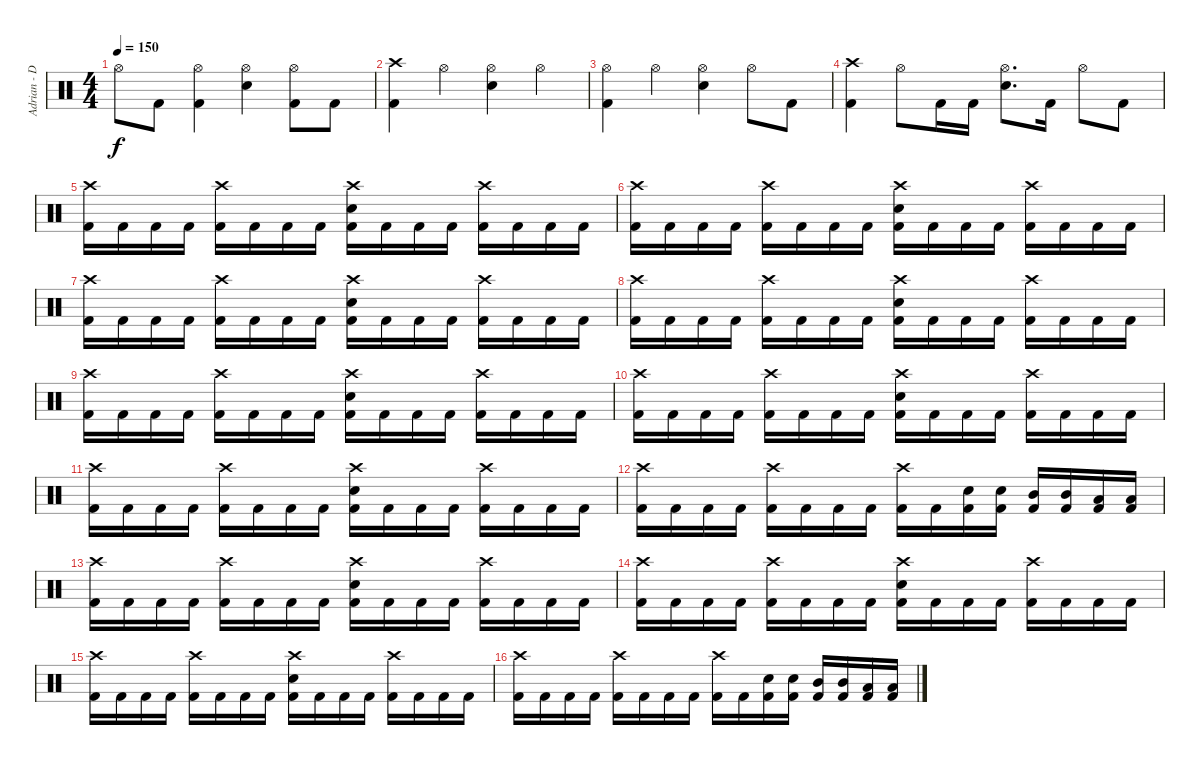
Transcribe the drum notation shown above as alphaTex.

\track ("Adrian - Drums" "Adrian - D") {instrument percussion}
\staff {score}
\articulation defaults
\ts (4 4)
\tempo 150
\clef neutral
\ks c "Hi-Hat (open)".8{dy f} "Kick (hit) 2".8
("Hi-Hat (open)" "Kick (hit) 2").4 ("Hi-Hat (open)" "Electric Snare (hit)").4 ("Hi-Hat (open)" "Kick (hit) 2").8 "Kick (hit) 2".8 |
("Crash high (hit)" "Kick (hit) 2").4 "Hi-Hat (open)".4 ("Hi-Hat (open)" "Electric Snare (hit)").4 "Hi-Hat (open)".4 |
("Hi-Hat (open)" "Kick (hit) 2").4 "Hi-Hat (open)".4 ("Hi-Hat (open)" "Electric Snare (hit)").4 "Hi-Hat (open)".8 "Kick (hit) 2".8 |
("Crash high (hit)" "Kick (hit) 2").4 "Hi-Hat (open)".8 "Kick (hit) 2".16 "Kick (hit) 2".16 ("Hi-Hat (open)" "Electric Snare (hit)").8{d} "Kick (hit) 2".16 "Hi-Hat (open)".8 "Kick (hit) 2".8 |
("Crash high (hit)" "Kick (hit) 2").16 "Kick (hit) 2".16 "Kick (hit) 2".16 "Kick (hit) 2".16 ("Crash high (hit)" "Kick (hit) 2").16 "Kick (hit) 2".16 "Kick (hit) 2".16 "Kick (hit) 2".16 ("Crash high (hit)" "Electric Snare (hit)" "Kick (hit) 2").16 "Kick (hit) 2".16 "Kick (hit) 2".16 "Kick (hit) 2".16 ("Crash high (hit)" "Kick (hit) 2").16 "Kick (hit) 2".16 "Kick (hit) 2".16 "Kick (hit) 2".16 |
("Crash high (hit)" "Kick (hit) 2").16 "Kick (hit) 2".16 "Kick (hit) 2".16 "Kick (hit) 2".16 ("Crash high (hit)" "Kick (hit) 2").16 "Kick (hit) 2".16 "Kick (hit) 2".16 "Kick (hit) 2".16 ("Crash high (hit)" "Electric Snare (hit)" "Kick (hit) 2").16 "Kick (hit) 2".16 "Kick (hit) 2".16 "Kick (hit) 2".16 ("Crash high (hit)" "Kick (hit) 2").16 "Kick (hit) 2".16 "Kick (hit) 2".16 "Kick (hit) 2".16 |
("Crash high (hit)" "Kick (hit) 2").16 "Kick (hit) 2".16 "Kick (hit) 2".16 "Kick (hit) 2".16 ("Crash high (hit)" "Kick (hit) 2").16 "Kick (hit) 2".16 "Kick (hit) 2".16 "Kick (hit) 2".16 ("Crash high (hit)" "Electric Snare (hit)" "Kick (hit) 2").16 "Kick (hit) 2".16 "Kick (hit) 2".16 "Kick (hit) 2".16 ("Crash high (hit)" "Kick (hit) 2").16 "Kick (hit) 2".16 "Kick (hit) 2".16 "Kick (hit) 2".16 |
("Crash high (hit)" "Kick (hit) 2").16 "Kick (hit) 2".16 "Kick (hit) 2".16 "Kick (hit) 2".16 ("Crash high (hit)" "Kick (hit) 2").16 "Kick (hit) 2".16 "Kick (hit) 2".16 "Kick (hit) 2".16 ("Crash high (hit)" "Electric Snare (hit)" "Kick (hit) 2").16 "Kick (hit) 2".16 "Kick (hit) 2".16 "Kick (hit) 2".16 ("Crash high (hit)" "Kick (hit) 2").16 "Kick (hit) 2".16 "Kick (hit) 2".16 "Kick (hit) 2".16 |
("Crash high (hit)" "Kick (hit) 2").16 "Kick (hit) 2".16 "Kick (hit) 2".16 "Kick (hit) 2".16 ("Crash high (hit)" "Kick (hit) 2").16 "Kick (hit) 2".16 "Kick (hit) 2".16 "Kick (hit) 2".16 ("Crash high (hit)" "Electric Snare (hit)" "Kick (hit) 2").16 "Kick (hit) 2".16 "Kick (hit) 2".16 "Kick (hit) 2".16 ("Crash high (hit)" "Kick (hit) 2").16 "Kick (hit) 2".16 "Kick (hit) 2".16 "Kick (hit) 2".16 |
("Crash high (hit)" "Kick (hit) 2").16 "Kick (hit) 2".16 "Kick (hit) 2".16 "Kick (hit) 2".16 ("Crash high (hit)" "Kick (hit) 2").16 "Kick (hit) 2".16 "Kick (hit) 2".16 "Kick (hit) 2".16 ("Crash high (hit)" "Electric Snare (hit)" "Kick (hit) 2").16 "Kick (hit) 2".16 "Kick (hit) 2".16 "Kick (hit) 2".16 ("Crash high (hit)" "Kick (hit) 2").16 "Kick (hit) 2".16 "Kick (hit) 2".16 "Kick (hit) 2".16 |
("Crash high (hit)" "Kick (hit) 2").16 "Kick (hit) 2".16 "Kick (hit) 2".16 "Kick (hit) 2".16 ("Crash high (hit)" "Kick (hit) 2").16 "Kick (hit) 2".16 "Kick (hit) 2".16 "Kick (hit) 2".16 ("Crash high (hit)" "Electric Snare (hit)" "Kick (hit) 2").16 "Kick (hit) 2".16 "Kick (hit) 2".16 "Kick (hit) 2".16 ("Crash high (hit)" "Kick (hit) 2").16 "Kick (hit) 2".16 "Kick (hit) 2".16 "Kick (hit) 2".16 |
("Crash high (hit)" "Kick (hit) 2").16 "Kick (hit) 2".16 "Kick (hit) 2".16 "Kick (hit) 2".16 ("Crash high (hit)" "Kick (hit) 2").16 "Kick (hit) 2".16 "Kick (hit) 2".16 "Kick (hit) 2".16 ("Crash high (hit)" "Kick (hit) 2").16 "Kick (hit) 2".16 ("Electric Snare (hit)" "Kick (hit) 2").16 ("Electric Snare (hit)" "Kick (hit) 2").16 ("Mid Tom (hit)" "Kick (hit) 2").16 ("Mid Tom (hit)" "Kick (hit) 2").16 ("Low Tom (hit)" "Kick (hit) 2").16 ("Low Tom (hit)" "Kick (hit) 2").16 |
("Crash high (hit)" "Kick (hit) 2").16 "Kick (hit) 2".16 "Kick (hit) 2".16 "Kick (hit) 2".16 ("Crash high (hit)" "Kick (hit) 2").16 "Kick (hit) 2".16 "Kick (hit) 2".16 "Kick (hit) 2".16 ("Crash high (hit)" "Electric Snare (hit)" "Kick (hit) 2").16 "Kick (hit) 2".16 "Kick (hit) 2".16 "Kick (hit) 2".16 ("Crash high (hit)" "Kick (hit) 2").16 "Kick (hit) 2".16 "Kick (hit) 2".16 "Kick (hit) 2".16 |
("Crash high (hit)" "Kick (hit) 2").16 "Kick (hit) 2".16 "Kick (hit) 2".16 "Kick (hit) 2".16 ("Crash high (hit)" "Kick (hit) 2").16 "Kick (hit) 2".16 "Kick (hit) 2".16 "Kick (hit) 2".16 ("Crash high (hit)" "Electric Snare (hit)" "Kick (hit) 2").16 "Kick (hit) 2".16 "Kick (hit) 2".16 "Kick (hit) 2".16 ("Crash high (hit)" "Kick (hit) 2").16 "Kick (hit) 2".16 "Kick (hit) 2".16 "Kick (hit) 2".16 |
("Crash high (hit)" "Kick (hit) 2").16 "Kick (hit) 2".16 "Kick (hit) 2".16 "Kick (hit) 2".16 ("Crash high (hit)" "Kick (hit) 2").16 "Kick (hit) 2".16 "Kick (hit) 2".16 "Kick (hit) 2".16 ("Crash high (hit)" "Electric Snare (hit)" "Kick (hit) 2").16 "Kick (hit) 2".16 "Kick (hit) 2".16 "Kick (hit) 2".16 ("Crash high (hit)" "Kick (hit) 2").16 "Kick (hit) 2".16 "Kick (hit) 2".16 "Kick (hit) 2".16 |
("Crash high (hit)" "Kick (hit) 2").16 "Kick (hit) 2".16 "Kick (hit) 2".16 "Kick (hit) 2".16 ("Crash high (hit)" "Kick (hit) 2").16 "Kick (hit) 2".16 "Kick (hit) 2".16 "Kick (hit) 2".16 ("Crash high (hit)" "Kick (hit) 2").16 "Kick (hit) 2".16 ("Electric Snare (hit)" "Kick (hit) 2").16 ("Electric Snare (hit)" "Kick (hit) 2").16 ("Mid Tom (hit)" "Kick (hit) 2").16 ("Mid Tom (hit)" "Kick (hit) 2").16 ("Low Tom (hit)" "Kick (hit) 2").16 ("Low Tom (hit)" "Kick (hit) 2").16
